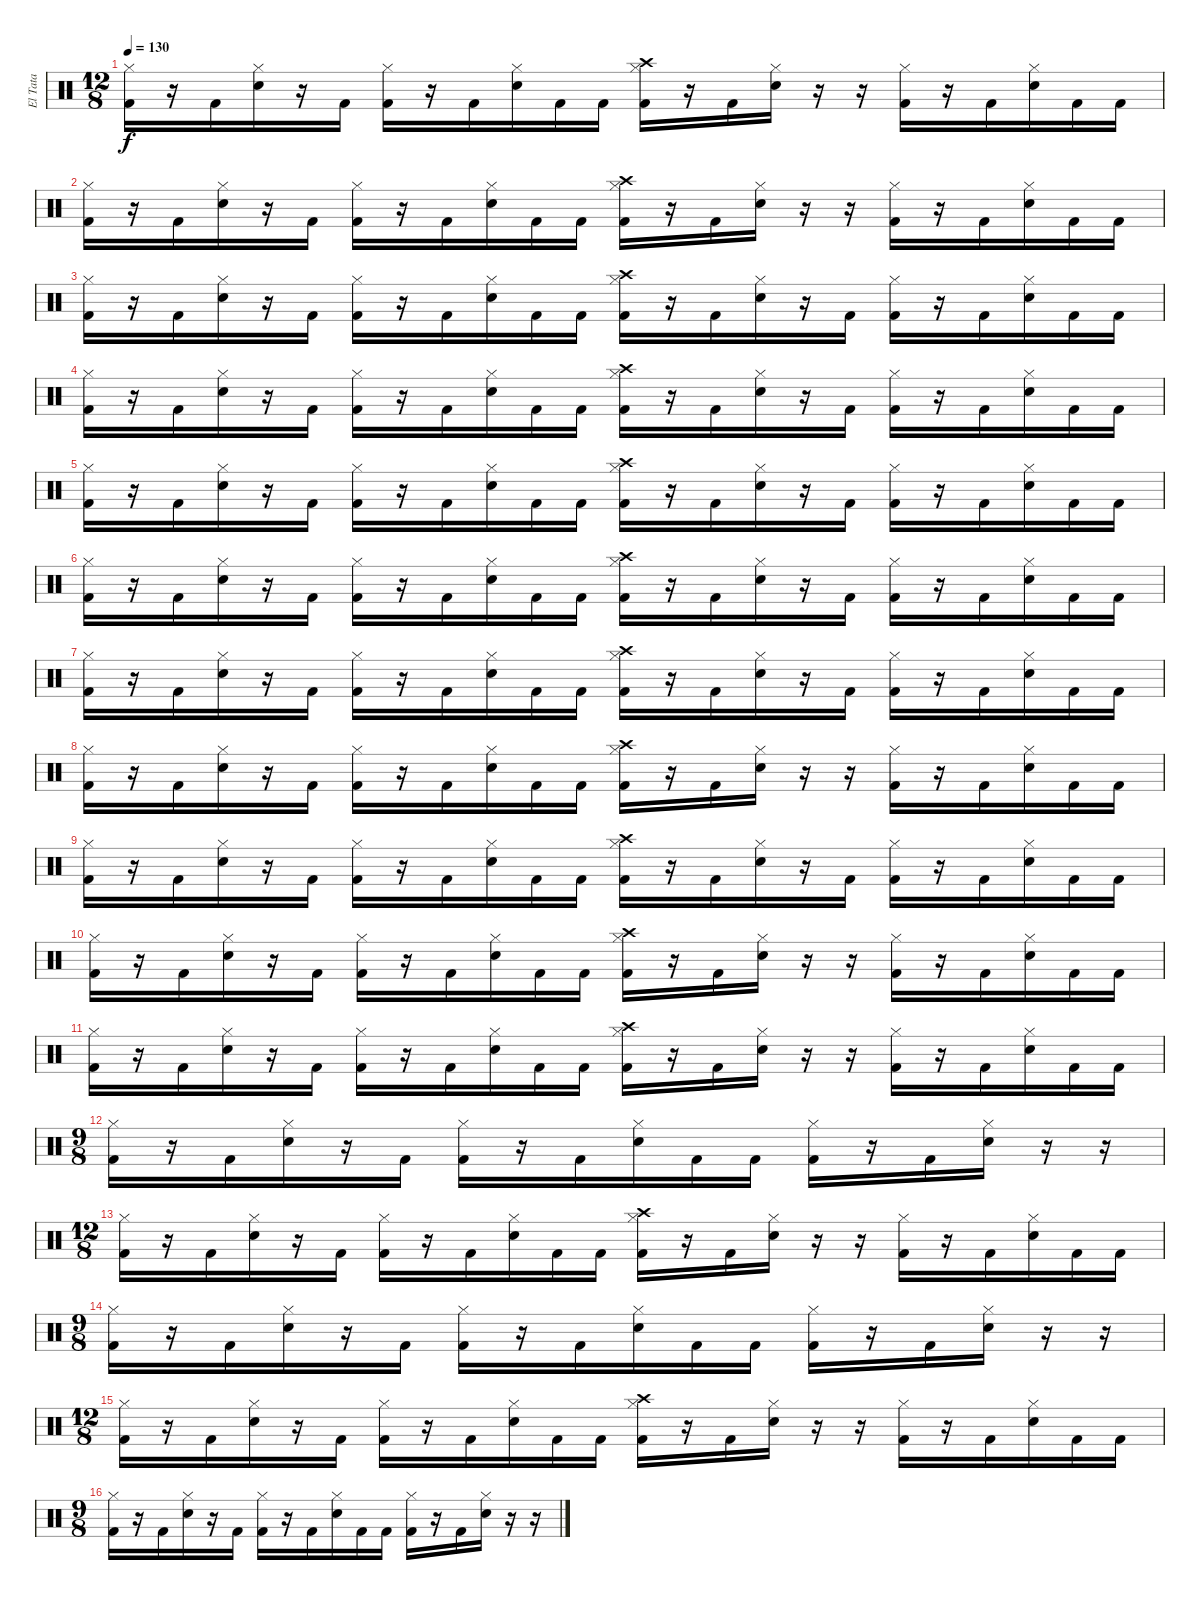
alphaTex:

\track ("El Tata" "El Tata") {instrument percussion}
\staff {score}
\articulation defaults
\ts (12 8)
\tempo 130
\clef neutral
\ks c
("Kick (hit) 2" "Hi-Hat (closed)").16{dy f} r.16 "Kick (hit) 2".16 ("Hi-Hat (closed)" "Electric Snare (hit)").16 r.16 "Kick (hit) 2".16 ("Kick (hit) 2" "Hi-Hat (closed)").16 r.16 "Kick (hit) 2".16 ("Hi-Hat (closed)" "Electric Snare (hit)").16 "Kick (hit) 2".16 "Kick (hit) 2".16 ("Kick (hit) 2" "Hi-Hat (closed)" "Crash high (hit)").16 r.16 "Kick (hit) 2".16 ("Hi-Hat (closed)" "Electric Snare (hit)").16 r.16 r.16 ("Kick (hit) 2" "Hi-Hat (closed)").16 r.16 "Kick (hit) 2".16 ("Hi-Hat (closed)" "Electric Snare (hit)").16 "Kick (hit) 2".16 "Kick (hit) 2".16 |
("Kick (hit) 2" "Hi-Hat (closed)").16 r.16 "Kick (hit) 2".16 ("Hi-Hat (closed)" "Electric Snare (hit)").16 r.16 "Kick (hit) 2".16 ("Kick (hit) 2" "Hi-Hat (closed)").16 r.16 "Kick (hit) 2".16 ("Hi-Hat (closed)" "Electric Snare (hit)").16 "Kick (hit) 2".16 "Kick (hit) 2".16 ("Kick (hit) 2" "Hi-Hat (closed)" "Crash high (hit)").16 r.16 "Kick (hit) 2".16 ("Hi-Hat (closed)" "Electric Snare (hit)").16 r.16 r.16 ("Kick (hit) 2" "Hi-Hat (closed)").16 r.16 "Kick (hit) 2".16 ("Hi-Hat (closed)" "Electric Snare (hit)").16 "Kick (hit) 2".16 "Kick (hit) 2".16 |
("Kick (hit) 2" "Hi-Hat (closed)").16 r.16 "Kick (hit) 2".16 ("Hi-Hat (closed)" "Electric Snare (hit)").16 r.16 "Kick (hit) 2".16 ("Kick (hit) 2" "Hi-Hat (closed)").16 r.16 "Kick (hit) 2".16 ("Hi-Hat (closed)" "Electric Snare (hit)").16 "Kick (hit) 2".16 "Kick (hit) 2".16 ("Kick (hit) 2" "Hi-Hat (closed)" "Crash high (hit)").16 r.16 "Kick (hit) 2".16 ("Hi-Hat (closed)" "Electric Snare (hit)").16 r.16 "Kick (hit) 2".16 ("Kick (hit) 2" "Hi-Hat (closed)").16 r.16 "Kick (hit) 2".16 ("Hi-Hat (closed)" "Electric Snare (hit)").16 "Kick (hit) 2".16 "Kick (hit) 2".16 |
("Kick (hit) 2" "Hi-Hat (closed)").16 r.16 "Kick (hit) 2".16 ("Hi-Hat (closed)" "Electric Snare (hit)").16 r.16 "Kick (hit) 2".16 ("Kick (hit) 2" "Hi-Hat (closed)").16 r.16 "Kick (hit) 2".16 ("Hi-Hat (closed)" "Electric Snare (hit)").16 "Kick (hit) 2".16 "Kick (hit) 2".16 ("Kick (hit) 2" "Hi-Hat (closed)" "Crash high (hit)").16 r.16 "Kick (hit) 2".16 ("Hi-Hat (closed)" "Electric Snare (hit)").16 r.16 "Kick (hit) 2".16 ("Kick (hit) 2" "Hi-Hat (closed)").16 r.16 "Kick (hit) 2".16 ("Hi-Hat (closed)" "Electric Snare (hit)").16 "Kick (hit) 2".16 "Kick (hit) 2".16 |
("Kick (hit) 2" "Hi-Hat (closed)").16 r.16 "Kick (hit) 2".16 ("Hi-Hat (closed)" "Electric Snare (hit)").16 r.16 "Kick (hit) 2".16 ("Kick (hit) 2" "Hi-Hat (closed)").16 r.16 "Kick (hit) 2".16 ("Hi-Hat (closed)" "Electric Snare (hit)").16 "Kick (hit) 2".16 "Kick (hit) 2".16 ("Kick (hit) 2" "Hi-Hat (closed)" "Crash high (hit)").16 r.16 "Kick (hit) 2".16 ("Hi-Hat (closed)" "Electric Snare (hit)").16 r.16 "Kick (hit) 2".16 ("Kick (hit) 2" "Hi-Hat (closed)").16 r.16 "Kick (hit) 2".16 ("Hi-Hat (closed)" "Electric Snare (hit)").16 "Kick (hit) 2".16 "Kick (hit) 2".16 |
("Kick (hit) 2" "Hi-Hat (closed)").16 r.16 "Kick (hit) 2".16 ("Hi-Hat (closed)" "Electric Snare (hit)").16 r.16 "Kick (hit) 2".16 ("Kick (hit) 2" "Hi-Hat (closed)").16 r.16 "Kick (hit) 2".16 ("Hi-Hat (closed)" "Electric Snare (hit)").16 "Kick (hit) 2".16 "Kick (hit) 2".16 ("Kick (hit) 2" "Hi-Hat (closed)" "Crash high (hit)").16 r.16 "Kick (hit) 2".16 ("Hi-Hat (closed)" "Electric Snare (hit)").16 r.16 "Kick (hit) 2".16 ("Kick (hit) 2" "Hi-Hat (closed)").16 r.16 "Kick (hit) 2".16 ("Hi-Hat (closed)" "Electric Snare (hit)").16 "Kick (hit) 2".16 "Kick (hit) 2".16 |
("Kick (hit) 2" "Hi-Hat (closed)").16 r.16 "Kick (hit) 2".16 ("Hi-Hat (closed)" "Electric Snare (hit)").16 r.16 "Kick (hit) 2".16 ("Kick (hit) 2" "Hi-Hat (closed)").16 r.16 "Kick (hit) 2".16 ("Hi-Hat (closed)" "Electric Snare (hit)").16 "Kick (hit) 2".16 "Kick (hit) 2".16 ("Kick (hit) 2" "Hi-Hat (closed)" "Crash high (hit)").16 r.16 "Kick (hit) 2".16 ("Hi-Hat (closed)" "Electric Snare (hit)").16 r.16 "Kick (hit) 2".16 ("Kick (hit) 2" "Hi-Hat (closed)").16 r.16 "Kick (hit) 2".16 ("Hi-Hat (closed)" "Electric Snare (hit)").16 "Kick (hit) 2".16 "Kick (hit) 2".16 |
("Kick (hit) 2" "Hi-Hat (closed)").16 r.16 "Kick (hit) 2".16 ("Hi-Hat (closed)" "Electric Snare (hit)").16 r.16 "Kick (hit) 2".16 ("Kick (hit) 2" "Hi-Hat (closed)").16 r.16 "Kick (hit) 2".16 ("Hi-Hat (closed)" "Electric Snare (hit)").16 "Kick (hit) 2".16 "Kick (hit) 2".16 ("Kick (hit) 2" "Hi-Hat (closed)" "Crash high (hit)").16 r.16 "Kick (hit) 2".16 ("Hi-Hat (closed)" "Electric Snare (hit)").16 r.16 r.16 ("Kick (hit) 2" "Hi-Hat (closed)").16 r.16 "Kick (hit) 2".16 ("Hi-Hat (closed)" "Electric Snare (hit)").16 "Kick (hit) 2".16 "Kick (hit) 2".16 |
("Kick (hit) 2" "Hi-Hat (closed)").16 r.16 "Kick (hit) 2".16 ("Hi-Hat (closed)" "Electric Snare (hit)").16 r.16 "Kick (hit) 2".16 ("Kick (hit) 2" "Hi-Hat (closed)").16 r.16 "Kick (hit) 2".16 ("Hi-Hat (closed)" "Electric Snare (hit)").16 "Kick (hit) 2".16 "Kick (hit) 2".16 ("Kick (hit) 2" "Hi-Hat (closed)" "Crash high (hit)").16 r.16 "Kick (hit) 2".16 ("Hi-Hat (closed)" "Electric Snare (hit)").16 r.16 "Kick (hit) 2".16 ("Kick (hit) 2" "Hi-Hat (closed)").16 r.16 "Kick (hit) 2".16 ("Hi-Hat (closed)" "Electric Snare (hit)").16 "Kick (hit) 2".16 "Kick (hit) 2".16 |
("Kick (hit) 2" "Hi-Hat (closed)").16 r.16 "Kick (hit) 2".16 ("Hi-Hat (closed)" "Electric Snare (hit)").16 r.16 "Kick (hit) 2".16 ("Kick (hit) 2" "Hi-Hat (closed)").16 r.16 "Kick (hit) 2".16 ("Hi-Hat (closed)" "Electric Snare (hit)").16 "Kick (hit) 2".16 "Kick (hit) 2".16 ("Kick (hit) 2" "Hi-Hat (closed)" "Crash high (hit)").16 r.16 "Kick (hit) 2".16 ("Hi-Hat (closed)" "Electric Snare (hit)").16 r.16 r.16 ("Kick (hit) 2" "Hi-Hat (closed)").16 r.16 "Kick (hit) 2".16 ("Hi-Hat (closed)" "Electric Snare (hit)").16 "Kick (hit) 2".16 "Kick (hit) 2".16 |
("Kick (hit) 2" "Hi-Hat (closed)").16 r.16 "Kick (hit) 2".16 ("Hi-Hat (closed)" "Electric Snare (hit)").16 r.16 "Kick (hit) 2".16 ("Kick (hit) 2" "Hi-Hat (closed)").16 r.16 "Kick (hit) 2".16 ("Hi-Hat (closed)" "Electric Snare (hit)").16 "Kick (hit) 2".16 "Kick (hit) 2".16 ("Kick (hit) 2" "Hi-Hat (closed)" "Crash high (hit)").16 r.16 "Kick (hit) 2".16 ("Hi-Hat (closed)" "Electric Snare (hit)").16 r.16 r.16 ("Kick (hit) 2" "Hi-Hat (closed)").16 r.16 "Kick (hit) 2".16 ("Hi-Hat (closed)" "Electric Snare (hit)").16 "Kick (hit) 2".16 "Kick (hit) 2".16 |
\ts (9 8)
("Hi-Hat (closed)" "Kick (hit) 2").16 r.16 "Kick (hit) 2".16 ("Hi-Hat (closed)" "Electric Snare (hit)").16 r.16 "Kick (hit) 2".16 ("Hi-Hat (closed)" "Kick (hit) 2").16 r.16 "Kick (hit) 2".16 ("Hi-Hat (closed)" "Electric Snare (hit)").16 "Kick (hit) 2".16 "Kick (hit) 2".16 ("Hi-Hat (closed)" "Kick (hit) 2").16 r.16 "Kick (hit) 2".16 ("Hi-Hat (closed)" "Electric Snare (hit)").16 r.16 r.16 |
\ts (12 8)
("Kick (hit) 2" "Hi-Hat (closed)").16 r.16 "Kick (hit) 2".16 ("Hi-Hat (closed)" "Electric Snare (hit)").16 r.16 "Kick (hit) 2".16 ("Kick (hit) 2" "Hi-Hat (closed)").16 r.16 "Kick (hit) 2".16 ("Hi-Hat (closed)" "Electric Snare (hit)").16 "Kick (hit) 2".16 "Kick (hit) 2".16 ("Kick (hit) 2" "Hi-Hat (closed)" "Crash high (hit)").16 r.16 "Kick (hit) 2".16 ("Hi-Hat (closed)" "Electric Snare (hit)").16 r.16 r.16 ("Kick (hit) 2" "Hi-Hat (closed)").16 r.16 "Kick (hit) 2".16 ("Hi-Hat (closed)" "Electric Snare (hit)").16 "Kick (hit) 2".16 "Kick (hit) 2".16 |
\ts (9 8)
("Hi-Hat (closed)" "Kick (hit) 2").16 r.16 "Kick (hit) 2".16 ("Hi-Hat (closed)" "Electric Snare (hit)").16 r.16 "Kick (hit) 2".16 ("Hi-Hat (closed)" "Kick (hit) 2").16 r.16 "Kick (hit) 2".16 ("Hi-Hat (closed)" "Electric Snare (hit)").16 "Kick (hit) 2".16 "Kick (hit) 2".16 ("Hi-Hat (closed)" "Kick (hit) 2").16 r.16 "Kick (hit) 2".16 ("Hi-Hat (closed)" "Electric Snare (hit)").16 r.16 r.16 |
\ts (12 8)
("Kick (hit) 2" "Hi-Hat (closed)").16 r.16 "Kick (hit) 2".16 ("Hi-Hat (closed)" "Electric Snare (hit)").16 r.16 "Kick (hit) 2".16 ("Kick (hit) 2" "Hi-Hat (closed)").16 r.16 "Kick (hit) 2".16 ("Hi-Hat (closed)" "Electric Snare (hit)").16 "Kick (hit) 2".16 "Kick (hit) 2".16 ("Kick (hit) 2" "Hi-Hat (closed)" "Crash high (hit)").16 r.16 "Kick (hit) 2".16 ("Hi-Hat (closed)" "Electric Snare (hit)").16 r.16 r.16 ("Kick (hit) 2" "Hi-Hat (closed)").16 r.16 "Kick (hit) 2".16 ("Hi-Hat (closed)" "Electric Snare (hit)").16 "Kick (hit) 2".16 "Kick (hit) 2".16 |
\ts (9 8)
("Hi-Hat (closed)" "Kick (hit) 2").16 r.16 "Kick (hit) 2".16 ("Hi-Hat (closed)" "Electric Snare (hit)").16 r.16 "Kick (hit) 2".16 ("Hi-Hat (closed)" "Kick (hit) 2").16 r.16 "Kick (hit) 2".16 ("Hi-Hat (closed)" "Electric Snare (hit)").16 "Kick (hit) 2".16 "Kick (hit) 2".16 ("Hi-Hat (closed)" "Kick (hit) 2").16 r.16 "Kick (hit) 2".16 ("Hi-Hat (closed)" "Electric Snare (hit)").16 r.16 r.16
